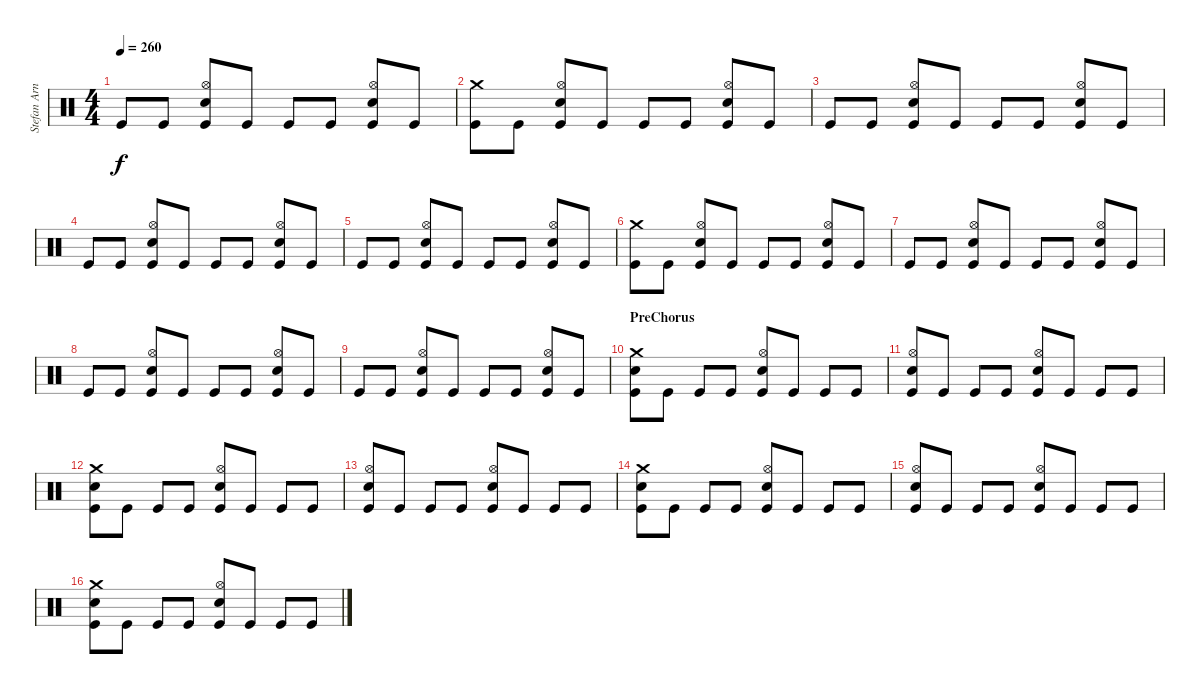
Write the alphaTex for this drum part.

\track ("Stefan Arnold" "Stefan Arn") {instrument percussion}
\staff {score}
\articulation defaults
\ts (4 4)
\tempo 260
\clef neutral
\ks c "Kick (hit)".8{dy f} "Kick (hit)".8
("Hi-Hat (open)" "Electric Snare (hit)" "Kick (hit)").8 "Kick (hit)".8 "Kick (hit)".8 "Kick (hit)".8 ("Hi-Hat (open)" "Electric Snare (hit)" "Kick (hit)").8 "Kick (hit)".8 |
("Crash medium (hit)" "Kick (hit)").8 "Kick (hit)".8 ("Hi-Hat (open)" "Electric Snare (hit)" "Kick (hit)").8 "Kick (hit)".8 "Kick (hit)".8 "Kick (hit)".8 ("Hi-Hat (open)" "Electric Snare (hit)" "Kick (hit)").8 "Kick (hit)".8 |
"Kick (hit)".8 "Kick (hit)".8 ("Hi-Hat (open)" "Electric Snare (hit)" "Kick (hit)").8 "Kick (hit)".8 "Kick (hit)".8 "Kick (hit)".8 ("Hi-Hat (open)" "Electric Snare (hit)" "Kick (hit)").8 "Kick (hit)".8 |
"Kick (hit)".8 "Kick (hit)".8 ("Hi-Hat (open)" "Electric Snare (hit)" "Kick (hit)").8 "Kick (hit)".8 "Kick (hit)".8 "Kick (hit)".8 ("Hi-Hat (open)" "Electric Snare (hit)" "Kick (hit)").8 "Kick (hit)".8 |
"Kick (hit)".8 "Kick (hit)".8 ("Hi-Hat (open)" "Electric Snare (hit)" "Kick (hit)").8 "Kick (hit)".8 "Kick (hit)".8 "Kick (hit)".8 ("Hi-Hat (open)" "Electric Snare (hit)" "Kick (hit)").8 "Kick (hit)".8 |
("Crash medium (hit)" "Kick (hit)").8 "Kick (hit)".8 ("Hi-Hat (open)" "Electric Snare (hit)" "Kick (hit)").8 "Kick (hit)".8 "Kick (hit)".8 "Kick (hit)".8 ("Hi-Hat (open)" "Electric Snare (hit)" "Kick (hit)").8 "Kick (hit)".8 |
"Kick (hit)".8 "Kick (hit)".8 ("Hi-Hat (open)" "Electric Snare (hit)" "Kick (hit)").8 "Kick (hit)".8 "Kick (hit)".8 "Kick (hit)".8 ("Hi-Hat (open)" "Electric Snare (hit)" "Kick (hit)").8 "Kick (hit)".8 |
"Kick (hit)".8 "Kick (hit)".8 ("Hi-Hat (open)" "Electric Snare (hit)" "Kick (hit)").8 "Kick (hit)".8 "Kick (hit)".8 "Kick (hit)".8 ("Hi-Hat (open)" "Electric Snare (hit)" "Kick (hit)").8 "Kick (hit)".8 |
"Kick (hit)".8 "Kick (hit)".8 ("Hi-Hat (open)" "Electric Snare (hit)" "Kick (hit)").8 "Kick (hit)".8 "Kick (hit)".8 "Kick (hit)".8 ("Hi-Hat (open)" "Electric Snare (hit)" "Kick (hit)").8 "Kick (hit)".8 |
\section ("" "PreChorus")
("Crash medium (hit)" "Electric Snare (hit)" "Kick (hit)").8 "Kick (hit)".8 "Kick (hit)".8 "Kick (hit)".8 ("Hi-Hat (open)" "Electric Snare (hit)" "Kick (hit)").8 "Kick (hit)".8 "Kick (hit)".8 "Kick (hit)".8 |
("Hi-Hat (open)" "Electric Snare (hit)" "Kick (hit)").8 "Kick (hit)".8 "Kick (hit)".8 "Kick (hit)".8 ("Hi-Hat (open)" "Electric Snare (hit)" "Kick (hit)").8 "Kick (hit)".8 "Kick (hit)".8 "Kick (hit)".8 |
("Crash medium (hit)" "Electric Snare (hit)" "Kick (hit)").8 "Kick (hit)".8 "Kick (hit)".8 "Kick (hit)".8 ("Hi-Hat (open)" "Electric Snare (hit)" "Kick (hit)").8 "Kick (hit)".8 "Kick (hit)".8 "Kick (hit)".8 |
("Hi-Hat (open)" "Electric Snare (hit)" "Kick (hit)").8 "Kick (hit)".8 "Kick (hit)".8 "Kick (hit)".8 ("Hi-Hat (open)" "Electric Snare (hit)" "Kick (hit)").8 "Kick (hit)".8 "Kick (hit)".8 "Kick (hit)".8 |
("Crash medium (hit)" "Electric Snare (hit)" "Kick (hit)").8 "Kick (hit)".8 "Kick (hit)".8 "Kick (hit)".8 ("Hi-Hat (open)" "Electric Snare (hit)" "Kick (hit)").8 "Kick (hit)".8 "Kick (hit)".8 "Kick (hit)".8 |
("Hi-Hat (open)" "Electric Snare (hit)" "Kick (hit)").8 "Kick (hit)".8 "Kick (hit)".8 "Kick (hit)".8 ("Hi-Hat (open)" "Electric Snare (hit)" "Kick (hit)").8 "Kick (hit)".8 "Kick (hit)".8 "Kick (hit)".8 |
("Crash medium (hit)" "Electric Snare (hit)" "Kick (hit)").8 "Kick (hit)".8 "Kick (hit)".8 "Kick (hit)".8 ("Hi-Hat (open)" "Electric Snare (hit)" "Kick (hit)").8 "Kick (hit)".8 "Kick (hit)".8 "Kick (hit)".8
